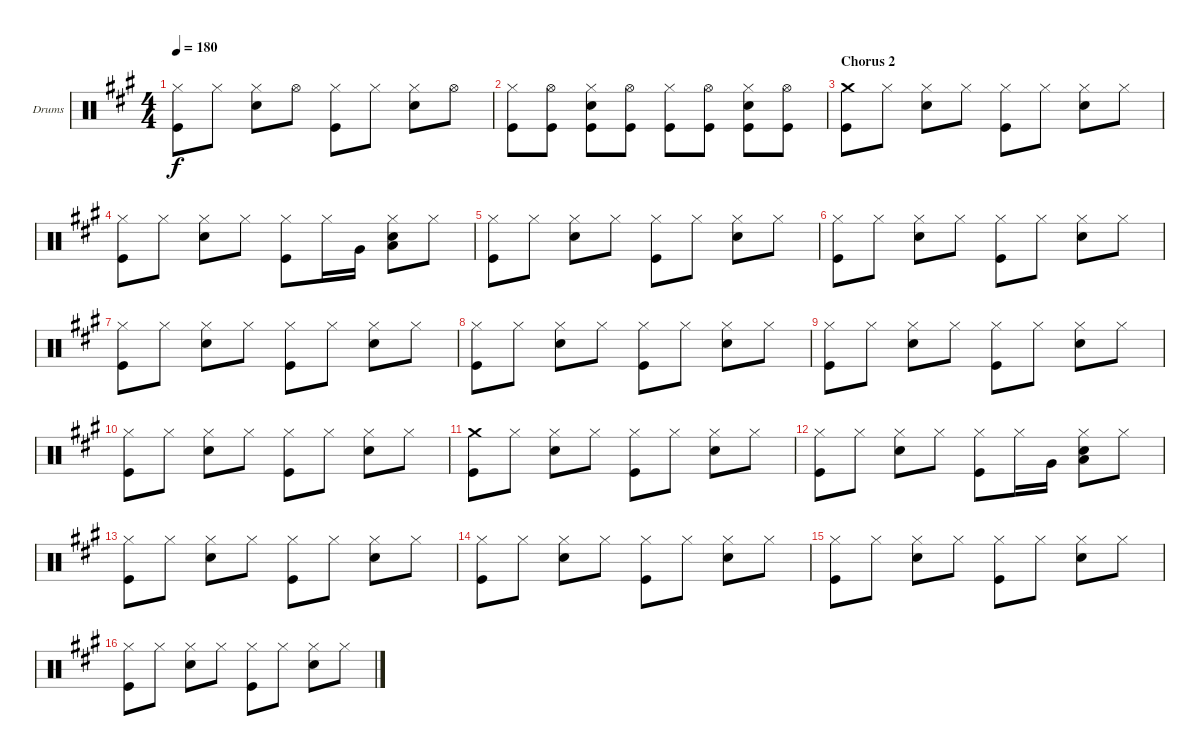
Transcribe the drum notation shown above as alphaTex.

\defaultSystemsLayout 4
\bracketExtendMode groupsimilarinstruments
\firstSystemTrackNameOrientation horizontal
\otherSystemsTrackNameOrientation horizontal
\track ("Drumkit" "Drums") {instrument percussion}
\staff {score}
\articulation defaults
\ts (4 4)
\tempo 180
\clef neutral
\ks f#minor
("Hi-Hat (closed)" "Kick (hit)").8{dy f} "Hi-Hat (closed)".8 ("Hi-Hat (closed)" "Snare (hit) 2").8 "Hi-Hat (open)".8 ("Hi-Hat (closed)" "Kick (hit)").8 "Hi-Hat (closed)".8 ("Hi-Hat (closed)" "Snare (hit) 2").8 "Hi-Hat (open)".8 |
("Hi-Hat (closed)" "Kick (hit)").8 ("Hi-Hat (open)" "Kick (hit)").8 ("Hi-Hat (closed)" "Snare (hit) 2" "Kick (hit)").8 ("Hi-Hat (open)" "Kick (hit)").8 ("Hi-Hat (closed)" "Kick (hit)").8 ("Hi-Hat (open)" "Kick (hit)").8 ("Hi-Hat (closed)" "Snare (hit) 2" "Kick (hit)").8 ("Hi-Hat (open)" "Kick (hit)").8 |
\section ("" "Chorus 2")
("Crash medium (hit)" "Kick (hit)").8 "Hi-Hat (closed)".8 ("Hi-Hat (closed)" "Snare (hit) 2").8 "Hi-Hat (closed)".8 ("Hi-Hat (closed)" "Kick (hit)").8 "Hi-Hat (closed)".8 ("Hi-Hat (closed)" "Snare (hit) 2").8 "Hi-Hat (closed)".8 |
("Hi-Hat (closed)" "Kick (hit)").8 "Hi-Hat (closed)".8 ("Hi-Hat (closed)" "Snare (hit) 2").8 "Hi-Hat (closed)".8 ("Hi-Hat (closed)" "Kick (hit)").8 "Hi-Hat (closed)".16 "Very Low Tom (hit)".16 ("Hi-Hat (closed)" "Low Tom (hit)" "Snare (hit) 2").8 "Hi-Hat (closed)".8 |
("Hi-Hat (closed)" "Kick (hit)").8 "Hi-Hat (closed)".8 ("Hi-Hat (closed)" "Snare (hit) 2").8 "Hi-Hat (closed)".8 ("Hi-Hat (closed)" "Kick (hit)").8 "Hi-Hat (closed)".8 ("Hi-Hat (closed)" "Snare (hit) 2").8 "Hi-Hat (closed)".8 |
("Hi-Hat (closed)" "Kick (hit)").8 "Hi-Hat (closed)".8 ("Hi-Hat (closed)" "Snare (hit) 2").8 "Hi-Hat (closed)".8 ("Hi-Hat (closed)" "Kick (hit)").8 "Hi-Hat (closed)".8 ("Hi-Hat (closed)" "Snare (hit) 2").8 "Hi-Hat (closed)".8 |
("Hi-Hat (closed)" "Kick (hit)").8 "Hi-Hat (closed)".8 ("Hi-Hat (closed)" "Snare (hit) 2").8 "Hi-Hat (closed)".8 ("Hi-Hat (closed)" "Kick (hit)").8 "Hi-Hat (closed)".8 ("Hi-Hat (closed)" "Snare (hit) 2").8 "Hi-Hat (closed)".8 |
("Hi-Hat (closed)" "Kick (hit)").8 "Hi-Hat (closed)".8 ("Hi-Hat (closed)" "Snare (hit) 2").8 "Hi-Hat (closed)".8 ("Hi-Hat (closed)" "Kick (hit)").8 "Hi-Hat (closed)".8 ("Hi-Hat (closed)" "Snare (hit) 2").8 "Hi-Hat (closed)".8 |
("Hi-Hat (closed)" "Kick (hit)").8 "Hi-Hat (closed)".8 ("Hi-Hat (closed)" "Snare (hit) 2").8 "Hi-Hat (closed)".8 ("Hi-Hat (closed)" "Kick (hit)").8 "Hi-Hat (closed)".8 ("Hi-Hat (closed)" "Snare (hit) 2").8 "Hi-Hat (closed)".8 |
("Hi-Hat (closed)" "Kick (hit)").8 "Hi-Hat (closed)".8 ("Hi-Hat (closed)" "Snare (hit) 2").8 "Hi-Hat (closed)".8 ("Hi-Hat (closed)" "Kick (hit)").8 "Hi-Hat (closed)".8 ("Hi-Hat (closed)" "Snare (hit) 2").8 "Hi-Hat (closed)".8 |
("Crash medium (hit)" "Kick (hit)").8 "Hi-Hat (closed)".8 ("Hi-Hat (closed)" "Snare (hit) 2").8 "Hi-Hat (closed)".8 ("Hi-Hat (closed)" "Kick (hit)").8 "Hi-Hat (closed)".8 ("Hi-Hat (closed)" "Snare (hit) 2").8 "Hi-Hat (closed)".8 |
("Hi-Hat (closed)" "Kick (hit)").8 "Hi-Hat (closed)".8 ("Hi-Hat (closed)" "Snare (hit) 2").8 "Hi-Hat (closed)".8 ("Hi-Hat (closed)" "Kick (hit)").8 "Hi-Hat (closed)".16 "Very Low Tom (hit)".16 ("Hi-Hat (closed)" "Low Tom (hit)" "Snare (hit) 2").8 "Hi-Hat (closed)".8 |
("Hi-Hat (closed)" "Kick (hit)").8 "Hi-Hat (closed)".8 ("Hi-Hat (closed)" "Snare (hit) 2").8 "Hi-Hat (closed)".8 ("Hi-Hat (closed)" "Kick (hit)").8 "Hi-Hat (closed)".8 ("Hi-Hat (closed)" "Snare (hit) 2").8 "Hi-Hat (closed)".8 |
("Hi-Hat (closed)" "Kick (hit)").8 "Hi-Hat (closed)".8 ("Hi-Hat (closed)" "Snare (hit) 2").8 "Hi-Hat (closed)".8 ("Hi-Hat (closed)" "Kick (hit)").8 "Hi-Hat (closed)".8 ("Hi-Hat (closed)" "Snare (hit) 2").8 "Hi-Hat (closed)".8 |
("Hi-Hat (closed)" "Kick (hit)").8 "Hi-Hat (closed)".8 ("Hi-Hat (closed)" "Snare (hit) 2").8 "Hi-Hat (closed)".8 ("Hi-Hat (closed)" "Kick (hit)").8 "Hi-Hat (closed)".8 ("Hi-Hat (closed)" "Snare (hit) 2").8 "Hi-Hat (closed)".8 |
("Hi-Hat (closed)" "Kick (hit)").8 "Hi-Hat (closed)".8 ("Hi-Hat (closed)" "Snare (hit) 2").8 "Hi-Hat (closed)".8 ("Hi-Hat (closed)" "Kick (hit)").8 "Hi-Hat (closed)".8 ("Hi-Hat (closed)" "Snare (hit) 2").8 "Hi-Hat (closed)".8
